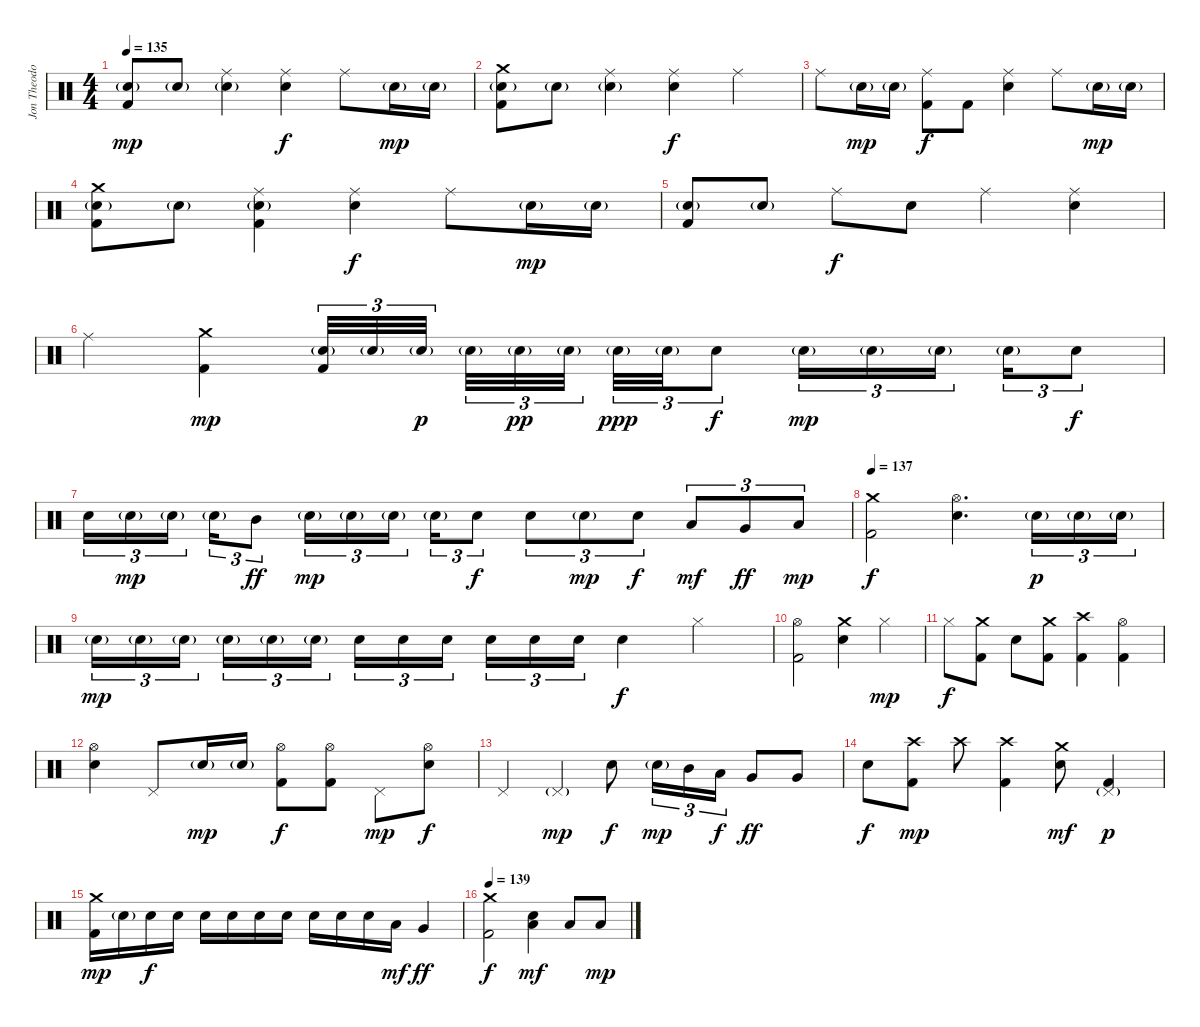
\track ("Jon Theodore - Drums" "Jon Theodo") {instrument percussion}
\staff {score}
\articulation defaults
\ts (4 4)
\tempo 135
\clef neutral
\ks c
("Electric Snare (hit)"{g} "Kick (hit) 2").8{dy mp} "Electric Snare (hit)"{g}.8 ("Ride (middle)" "Electric Snare (hit)"{g}).4 ("Ride (middle)" "Electric Snare (hit)").4{dy f} "Ride (middle)".8 "Electric Snare (hit)"{g}.16{dy mp} "Electric Snare (hit)"{g}.16 |
("Crash medium (hit)" "Electric Snare (hit)"{g} "Kick (hit) 2").8 "Electric Snare (hit)"{g}.8 ("Ride (middle)" "Electric Snare (hit)"{g}).4 ("Ride (middle)" "Electric Snare (hit)").4{dy f} "Ride (middle)".4 |
"Ride (middle)".8 "Electric Snare (hit)"{g}.16{dy mp} "Electric Snare (hit)"{g}.16 ("Ride (middle)" "Kick (hit) 2").8{dy f} "Kick (hit) 2".8 ("Ride (middle)" "Electric Snare (hit)").4 "Ride (middle)".8 "Electric Snare (hit)"{g}.16{dy mp} "Electric Snare (hit)"{g}.16 |
("Crash medium (hit)" "Electric Snare (hit)"{g} "Kick (hit) 2").8 "Electric Snare (hit)"{g}.8 ("Ride (middle)" "Electric Snare (hit)"{g} "Kick (hit) 2").4 ("Ride (middle)" "Electric Snare (hit)").4{dy f} "Ride (middle)".8 "Electric Snare (hit)"{g}.16{dy mp} "Electric Snare (hit)"{g}.16 |
("Electric Snare (hit)"{g} "Kick (hit) 2").8 "Electric Snare (hit)"{g}.8 "Ride (middle)".8{dy f} "Electric Snare (hit)".8 "Ride (middle)".4 ("Ride (middle)" "Electric Snare (hit)").4 |
"Ride (middle)".4 ("Crash medium (hit)" "Kick (hit) 2").4{dy mp} ("Electric Snare (hit)"{g} "Kick (hit) 2").32{tu (3 2)} "Electric Snare (hit)"{g}.32{tu (3 2)} "Electric Snare (hit)"{g}.32{tu (3 2) dy p beam splitsecondary} "Electric Snare (hit)"{g}.32{tu (3 2)} "Electric Snare (hit)"{g}.32{tu (3 2) dy pp} "Electric Snare (hit)"{g}.32{tu (3 2) beam splitsecondary} "Electric Snare (hit)"{g}.32{tu (3 2) dy ppp} "Electric Snare (hit)"{g}.32{tu (3 2)} "Electric Snare (hit)".8{tu (3 2) dy f} "Electric Snare (hit)"{g}.16{tu (3 2) dy mp} "Electric Snare (hit)"{g}.16{tu (3 2)} "Electric Snare (hit)"{g}.16{tu (3 2) beam splitsecondary} "Electric Snare (hit)"{g}.16{tu (3 2)} "Electric Snare (hit)".8{tu (3 2) dy f} |
"Electric Snare (hit)".16{tu (3 2)} "Electric Snare (hit)"{g}.16{tu (3 2) dy mp} "Electric Snare (hit)"{g}.16{tu (3 2) beam splitsecondary} "Electric Snare (hit)"{g}.16{tu (3 2)} "Mid Tom (hit)".8{tu (3 2) dy ff} "Electric Snare (hit)"{g}.16{tu (3 2) dy mp} "Electric Snare (hit)"{g}.16{tu (3 2)} "Electric Snare (hit)"{g}.16{tu (3 2) beam splitsecondary} "Electric Snare (hit)"{g}.16{tu (3 2)} "Electric Snare (hit)".8{tu (3 2) dy f} "Electric Snare (hit)".8{tu (3 2)} "Electric Snare (hit)"{g}.8{tu (3 2) dy mp} "Electric Snare (hit)".8{tu (3 2) dy f} "Low Tom (hit)".8{tu (3 2) dy mf} "Very Low Tom (hit)".8{tu (3 2) dy ff} "Low Floor Tom (hit)".8{tu (3 2) dy mp} |
\tempo 137
("Crash medium (hit)" "Kick (hit) 2").2{dy f} ("Hi-Hat (open)" "Electric Snare (hit)").4{d} "Electric Snare (hit)"{g}.16{tu (3 2) dy p} "Electric Snare (hit)"{g}.16{tu (3 2)} "Electric Snare (hit)"{g}.16{tu (3 2)} |
"Electric Snare (hit)"{g}.16{tu (3 2) dy mp} "Electric Snare (hit)"{g}.16{tu (3 2)} "Electric Snare (hit)"{g}.16{tu (3 2) beam splitsecondary} "Electric Snare (hit)"{g}.16{tu (3 2)} "Electric Snare (hit)"{g}.16{tu (3 2)} "Electric Snare (hit)"{g}.16{tu (3 2)} "Electric Snare (hit)".16{tu (3 2)} "Electric Snare (hit)".16{tu (3 2)} "Electric Snare (hit)".16{tu (3 2) beam splitsecondary} "Electric Snare (hit)".16{tu (3 2)} "Electric Snare (hit)".16{tu (3 2)} "Electric Snare (hit)".16{tu (3 2)} "Electric Snare (hit)".4{dy f} "Hi-Hat (closed)".4 |
("Hi-Hat (open)" "Kick (hit) 2").2 ("Crash medium (hit)" "Electric Snare (hit)").4 "Hi-Hat (closed)".4{dy mp} |
"Hi-Hat (closed)".8{dy f} ("Crash medium (hit)" "Kick (hit) 2").8 "Electric Snare (hit)".8 ("Crash medium (hit)" "Kick (hit) 2").8 ("Crash high (hit)" "Kick (hit) 2").4 ("Hi-Hat (open)" "Kick (hit) 2").4 |
("Hi-Hat (open)" "Electric Snare (hit)").4 "Pedal Hi-Hat (hit)".8 "Electric Snare (hit)"{g}.16{dy mp} "Electric Snare (hit)"{g}.16 ("Hi-Hat (open)" "Kick (hit) 2").8{dy f} ("Hi-Hat (open)" "Kick (hit) 2").8 "Pedal Hi-Hat (hit)".8{dy mp} ("Hi-Hat (open)" "Electric Snare (hit)").8{dy f} |
"Pedal Hi-Hat (hit)".4 "Pedal Hi-Hat (hit)"{g}.4{dy mp} "Electric Snare (hit)".8{dy f} "Electric Snare (hit)"{g}.16{tu (3 2) dy mp} "Mid Tom (hit)".16{tu (3 2)} "Low Tom (hit)".16{tu (3 2) dy f} "Very Low Tom (hit)".8{dy ff} "Very Low Tom (hit)".8 |
"Electric Snare (hit)".8{dy f} ("Crash high (hit)" "Kick (hit) 2").8{dy mp} "Crash high (hit)".8 ("Crash high (hit)" "Kick (hit) 2").4 ("Crash medium (hit)" "Electric Snare (hit)").8{dy mf} ("Pedal Hi-Hat (hit)"{g} "Kick (hit) 2").4{dy p} |
("Crash medium (hit)" "Kick (hit) 2").16{dy mp} "Electric Snare (hit)"{g}.16 "Electric Snare (hit)".16{dy f} "Electric Snare (hit)".16 "Electric Snare (hit)".16 "Electric Snare (hit)".16 "Electric Snare (hit)".16 "Electric Snare (hit)".16 "Electric Snare (hit)".16 "Electric Snare (hit)".16 "Electric Snare (hit)".16 "Low Tom (hit)".16{dy mf} "Very Low Tom (hit)".4{dy ff} |
\tempo 139
("Crash medium (hit)" "Kick (hit) 2").2{dy f} ("Electric Snare (hit)" "Low Floor Tom (hit)").4{dy mf} "Low Tom (hit)".8 "Low Tom (hit)".8{dy mp}
